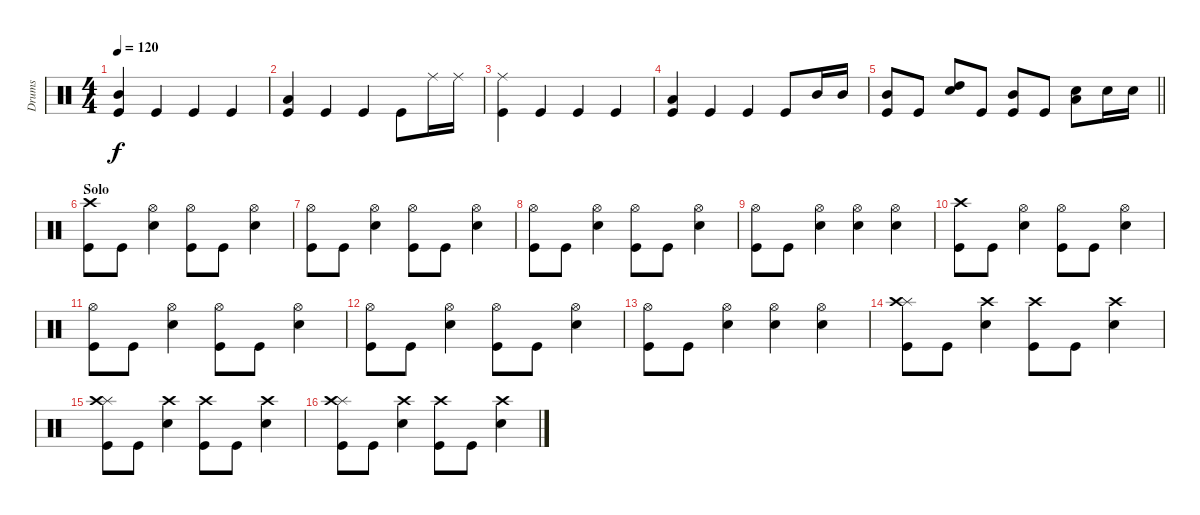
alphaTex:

\track ("Drums" "Drums") {instrument percussion}
\staff {score}
\articulation defaults
\ts (4 4)
\tempo 120
\clef neutral
\ks c
("Mid Tom (hit)" "Kick (hit)").4{dy f} "Kick (hit)".4 "Kick (hit)".4 "Kick (hit)".4 |
("Low Tom (hit)" "Kick (hit)").4 "Kick (hit)".4 "Kick (hit)".4 "Kick (hit)".8 "Ride (middle)".16 "Ride (middle)".16 |
("Ride (middle)" "Kick (hit)").4 "Kick (hit)".4 "Kick (hit)".4 "Kick (hit)".4 |
("Low Tom (hit)" "Kick (hit)").4 "Kick (hit)".4 "Kick (hit)".4 "Kick (hit)".8 "Mid Tom (hit)".16 "Mid Tom (hit)".16 |
\barLineRight lightlight
("Mid Tom (hit)" "Kick (hit)").8 "Kick (hit)".8 ("High Tom (hit)" "Snare (hit) 2").8 "Kick (hit)".8 ("Mid Tom (hit)" "Kick (hit)").8 "Kick (hit)".8 ("Low Tom (hit)" "Snare (hit) 2").8 "Snare (hit) 2".16 "Snare (hit) 2".16 |
\section ("" "Solo")
("Crash high (hit)" "Kick (hit)").8 "Kick (hit)".8 ("Hi-Hat (open)" "Snare (hit) 2").4 ("Hi-Hat (open)" "Kick (hit)").8 "Kick (hit)".8 ("Hi-Hat (open)" "Snare (hit) 2").4 |
("Hi-Hat (open)" "Kick (hit)").8 "Kick (hit)".8 ("Hi-Hat (open)" "Snare (hit) 2").4 ("Hi-Hat (open)" "Kick (hit)").8 "Kick (hit)".8 ("Hi-Hat (open)" "Snare (hit) 2").4 |
("Hi-Hat (open)" "Kick (hit)").8 "Kick (hit)".8 ("Hi-Hat (open)" "Snare (hit) 2").4 ("Hi-Hat (open)" "Kick (hit)").8 "Kick (hit)".8 ("Hi-Hat (open)" "Snare (hit) 2").4 |
("Hi-Hat (open)" "Kick (hit)").8 "Kick (hit)".8 ("Hi-Hat (open)" "Snare (hit) 2").4 ("Hi-Hat (open)" "Snare (hit) 2").4 ("Hi-Hat (open)" "Snare (hit) 2").4 |
("Crash high (hit)" "Kick (hit)").8 "Kick (hit)".8 ("Hi-Hat (open)" "Snare (hit) 2").4 ("Hi-Hat (open)" "Kick (hit)").8 "Kick (hit)".8 ("Hi-Hat (open)" "Snare (hit) 2").4 |
("Hi-Hat (open)" "Kick (hit)").8 "Kick (hit)".8 ("Hi-Hat (open)" "Snare (hit) 2").4 ("Hi-Hat (open)" "Kick (hit)").8 "Kick (hit)".8 ("Hi-Hat (open)" "Snare (hit) 2").4 |
("Hi-Hat (open)" "Kick (hit)").8 "Kick (hit)".8 ("Hi-Hat (open)" "Snare (hit) 2").4 ("Hi-Hat (open)" "Kick (hit)").8 "Kick (hit)".8 ("Hi-Hat (open)" "Snare (hit) 2").4 |
("Hi-Hat (open)" "Kick (hit)").8 "Kick (hit)".8 ("Hi-Hat (open)" "Snare (hit) 2").4 ("Hi-Hat (open)" "Snare (hit) 2").4 ("Hi-Hat (open)" "Snare (hit) 2").4 |
("Splash (hit)" "Crash high (hit)" "Kick (hit)").8 "Kick (hit)".8 ("Crash high (hit)" "Snare (hit) 2").4 ("Crash high (hit)" "Kick (hit)").8 "Kick (hit)".8 ("Crash high (hit)" "Snare (hit) 2").4 |
("Splash (hit)" "Crash high (hit)" "Kick (hit)").8 "Kick (hit)".8 ("Crash high (hit)" "Snare (hit) 2").4 ("Crash high (hit)" "Kick (hit)").8 "Kick (hit)".8 ("Crash high (hit)" "Snare (hit) 2").4 |
("Splash (hit)" "Crash high (hit)" "Kick (hit)").8 "Kick (hit)".8 ("Crash high (hit)" "Snare (hit) 2").4 ("Crash high (hit)" "Kick (hit)").8 "Kick (hit)".8 ("Crash high (hit)" "Snare (hit) 2").4
